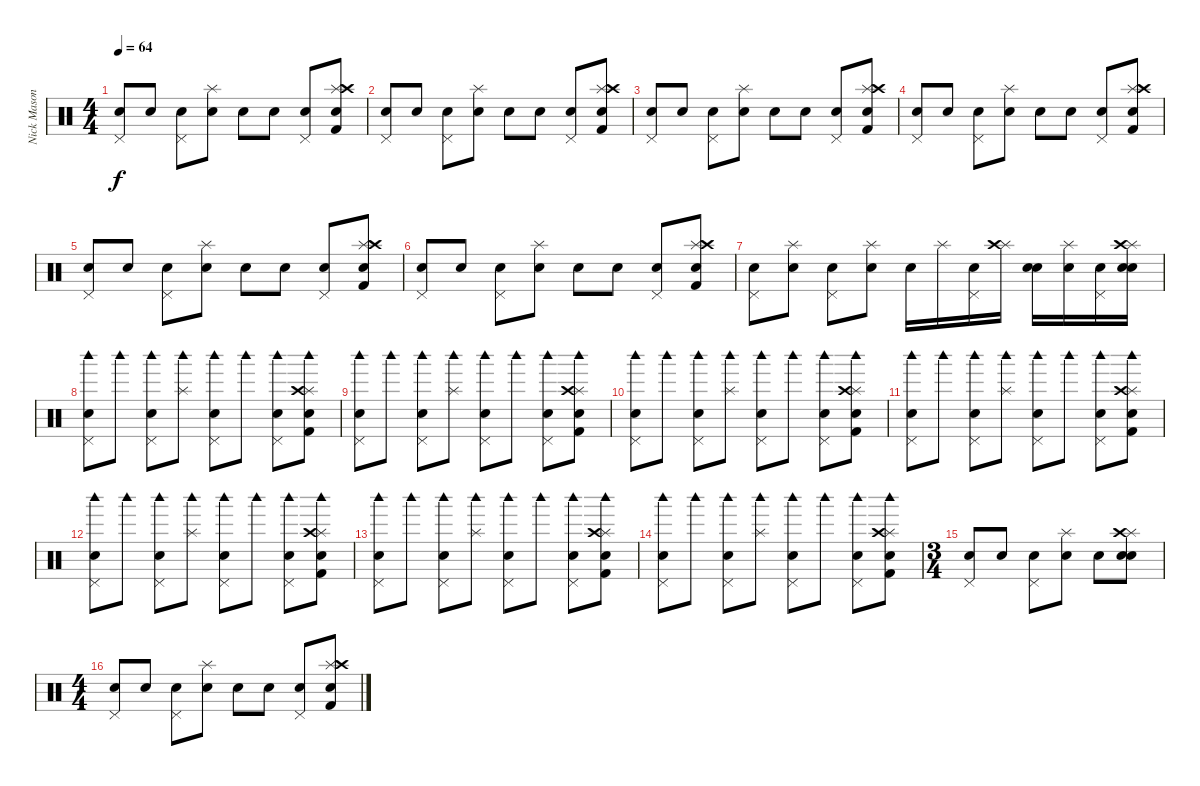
\track ("Nick Mason" "Nick Mason") {instrument percussion}
\staff {score}
\articulation defaults
\ts (4 4)
\tempo 64
\clef neutral
\ks c
("Pedal Hi-Hat (hit)" "Snare (hit) 2").8{dy f} "Electric Snare (hit)".8 ("Pedal Hi-Hat (hit)" "Snare (hit) 2").8 ("Splash (hit)" "Electric Snare (hit)").8 "Snare (hit) 2".8 "Electric Snare (hit)".8 ("Pedal Hi-Hat (hit)" "Snare (hit) 2").8 ("Splash (hit)" "Crash high (hit)" "Electric Snare (hit)" "Kick (hit) 2").8 |
("Pedal Hi-Hat (hit)" "Snare (hit) 2").8 "Electric Snare (hit)".8 ("Pedal Hi-Hat (hit)" "Snare (hit) 2").8 ("Splash (hit)" "Electric Snare (hit)").8 "Snare (hit) 2".8 "Electric Snare (hit)".8 ("Pedal Hi-Hat (hit)" "Snare (hit) 2").8 ("Splash (hit)" "Crash high (hit)" "Electric Snare (hit)" "Kick (hit) 2").8 |
("Pedal Hi-Hat (hit)" "Snare (hit) 2").8 "Electric Snare (hit)".8 ("Pedal Hi-Hat (hit)" "Snare (hit) 2").8 ("Splash (hit)" "Electric Snare (hit)").8 "Snare (hit) 2".8 "Electric Snare (hit)".8 ("Pedal Hi-Hat (hit)" "Snare (hit) 2").8 ("Splash (hit)" "Crash high (hit)" "Electric Snare (hit)" "Kick (hit) 2").8 |
("Pedal Hi-Hat (hit)" "Snare (hit) 2").8 "Electric Snare (hit)".8 ("Pedal Hi-Hat (hit)" "Snare (hit) 2").8 ("Splash (hit)" "Electric Snare (hit)").8 "Snare (hit) 2".8 "Electric Snare (hit)".8 ("Pedal Hi-Hat (hit)" "Snare (hit) 2").8 ("Splash (hit)" "Crash high (hit)" "Electric Snare (hit)" "Kick (hit) 2").8 |
("Pedal Hi-Hat (hit)" "Snare (hit) 2").8 "Electric Snare (hit)".8 ("Pedal Hi-Hat (hit)" "Snare (hit) 2").8 ("Splash (hit)" "Electric Snare (hit)").8 "Snare (hit) 2".8 "Electric Snare (hit)".8 ("Pedal Hi-Hat (hit)" "Snare (hit) 2").8 ("Splash (hit)" "Crash high (hit)" "Electric Snare (hit)" "Kick (hit) 2").8 |
("Pedal Hi-Hat (hit)" "Snare (hit) 2").8 "Electric Snare (hit)".8 ("Pedal Hi-Hat (hit)" "Snare (hit) 2").8 ("Splash (hit)" "Electric Snare (hit)").8 "Snare (hit) 2".8 "Electric Snare (hit)".8 ("Pedal Hi-Hat (hit)" "Snare (hit) 2").8 ("Splash (hit)" "Crash high (hit)" "Electric Snare (hit)" "Kick (hit) 2").8 |
("Pedal Hi-Hat (hit)" "Snare (hit) 2").8 ("Splash (hit)" "Electric Snare (hit)").8 ("Pedal Hi-Hat (hit)" "Snare (hit) 2").8 ("Splash (hit)" "Electric Snare (hit)").8 "Snare (hit) 2".16 "Splash (hit)".16 ("Pedal Hi-Hat (hit)" "Snare (hit) 2").16 ("Splash (hit)" "Crash high (hit)").16 ("Electric Snare (hit)" "Snare (hit) 2").16 ("Splash (hit)" "Snare (hit) 2").16 ("Pedal Hi-Hat (hit)" "Snare (hit) 2").16 ("Splash (hit)" "Crash high (hit)" "Electric Snare (hit)" "Snare (hit) 2").16 |
("Woodblock high (hit)" "Pedal Hi-Hat (hit)" "Snare (hit) 2").8 "Woodblock high (hit)".8 ("Woodblock high (hit)" "Pedal Hi-Hat (hit)" "Snare (hit) 2").8 ("Woodblock high (hit)" "Splash (hit)").8 ("Woodblock high (hit)" "Pedal Hi-Hat (hit)" "Snare (hit) 2").8 "Woodblock high (hit)".8 ("Woodblock high (hit)" "Pedal Hi-Hat (hit)" "Snare (hit) 2").8 ("Woodblock high (hit)" "Splash (hit)" "Crash high (hit)" "Electric Snare (hit)" "Kick (hit) 2").8 |
("Woodblock high (hit)" "Pedal Hi-Hat (hit)" "Snare (hit) 2").8 "Woodblock high (hit)".8 ("Woodblock high (hit)" "Pedal Hi-Hat (hit)" "Snare (hit) 2").8 ("Woodblock high (hit)" "Splash (hit)").8 ("Woodblock high (hit)" "Pedal Hi-Hat (hit)" "Snare (hit) 2").8 "Woodblock high (hit)".8 ("Woodblock high (hit)" "Pedal Hi-Hat (hit)" "Snare (hit) 2").8 ("Woodblock high (hit)" "Splash (hit)" "Crash high (hit)" "Electric Snare (hit)" "Kick (hit) 2").8 |
("Woodblock high (hit)" "Pedal Hi-Hat (hit)" "Snare (hit) 2").8 "Woodblock high (hit)".8 ("Woodblock high (hit)" "Pedal Hi-Hat (hit)" "Snare (hit) 2").8 ("Woodblock high (hit)" "Splash (hit)").8 ("Woodblock high (hit)" "Pedal Hi-Hat (hit)" "Snare (hit) 2").8 "Woodblock high (hit)".8 ("Woodblock high (hit)" "Pedal Hi-Hat (hit)" "Snare (hit) 2").8 ("Woodblock high (hit)" "Splash (hit)" "Crash high (hit)" "Electric Snare (hit)" "Kick (hit) 2").8 |
("Woodblock high (hit)" "Pedal Hi-Hat (hit)" "Snare (hit) 2").8 "Woodblock high (hit)".8 ("Woodblock high (hit)" "Pedal Hi-Hat (hit)" "Snare (hit) 2").8 ("Woodblock high (hit)" "Splash (hit)").8 ("Woodblock high (hit)" "Pedal Hi-Hat (hit)" "Snare (hit) 2").8 "Woodblock high (hit)".8 ("Woodblock high (hit)" "Pedal Hi-Hat (hit)" "Snare (hit) 2").8 ("Woodblock high (hit)" "Splash (hit)" "Crash high (hit)" "Electric Snare (hit)" "Kick (hit) 2").8 |
("Woodblock high (hit)" "Pedal Hi-Hat (hit)" "Snare (hit) 2").8 "Woodblock high (hit)".8 ("Woodblock high (hit)" "Pedal Hi-Hat (hit)" "Snare (hit) 2").8 ("Woodblock high (hit)" "Splash (hit)").8 ("Woodblock high (hit)" "Pedal Hi-Hat (hit)" "Snare (hit) 2").8 "Woodblock high (hit)".8 ("Woodblock high (hit)" "Pedal Hi-Hat (hit)" "Snare (hit) 2").8 ("Woodblock high (hit)" "Splash (hit)" "Crash high (hit)" "Electric Snare (hit)" "Kick (hit) 2").8 |
("Woodblock high (hit)" "Pedal Hi-Hat (hit)" "Snare (hit) 2").8 "Woodblock high (hit)".8 ("Woodblock high (hit)" "Pedal Hi-Hat (hit)" "Snare (hit) 2").8 ("Woodblock high (hit)" "Splash (hit)").8 ("Woodblock high (hit)" "Pedal Hi-Hat (hit)" "Snare (hit) 2").8 "Woodblock high (hit)".8 ("Woodblock high (hit)" "Pedal Hi-Hat (hit)" "Snare (hit) 2").8 ("Woodblock high (hit)" "Splash (hit)" "Crash high (hit)" "Electric Snare (hit)" "Kick (hit) 2").8 |
("Woodblock high (hit)" "Pedal Hi-Hat (hit)" "Snare (hit) 2").8 "Woodblock high (hit)".8 ("Woodblock high (hit)" "Pedal Hi-Hat (hit)" "Snare (hit) 2").8 ("Woodblock high (hit)" "Splash (hit)").8 ("Woodblock high (hit)" "Pedal Hi-Hat (hit)" "Snare (hit) 2").8 "Woodblock high (hit)".8 ("Woodblock high (hit)" "Pedal Hi-Hat (hit)" "Snare (hit) 2").8 ("Woodblock high (hit)" "Splash (hit)" "Crash high (hit)" "Electric Snare (hit)" "Kick (hit) 2").8 |
\ts (3 4)
("Pedal Hi-Hat (hit)" "Snare (hit) 2").8 "Electric Snare (hit)".8 ("Pedal Hi-Hat (hit)" "Snare (hit) 2").8 ("Splash (hit)" "Electric Snare (hit)").8 "Snare (hit) 2".8 ("Splash (hit)" "Crash high (hit)" "Electric Snare (hit)" "Hand Clap (hit)").8 |
\ts (4 4)
("Pedal Hi-Hat (hit)" "Snare (hit) 2").8 "Electric Snare (hit)".8 ("Pedal Hi-Hat (hit)" "Snare (hit) 2").8 ("Splash (hit)" "Electric Snare (hit)").8 "Snare (hit) 2".8 "Electric Snare (hit)".8 ("Pedal Hi-Hat (hit)" "Snare (hit) 2").8 ("Splash (hit)" "Crash high (hit)" "Electric Snare (hit)" "Kick (hit) 2").8
